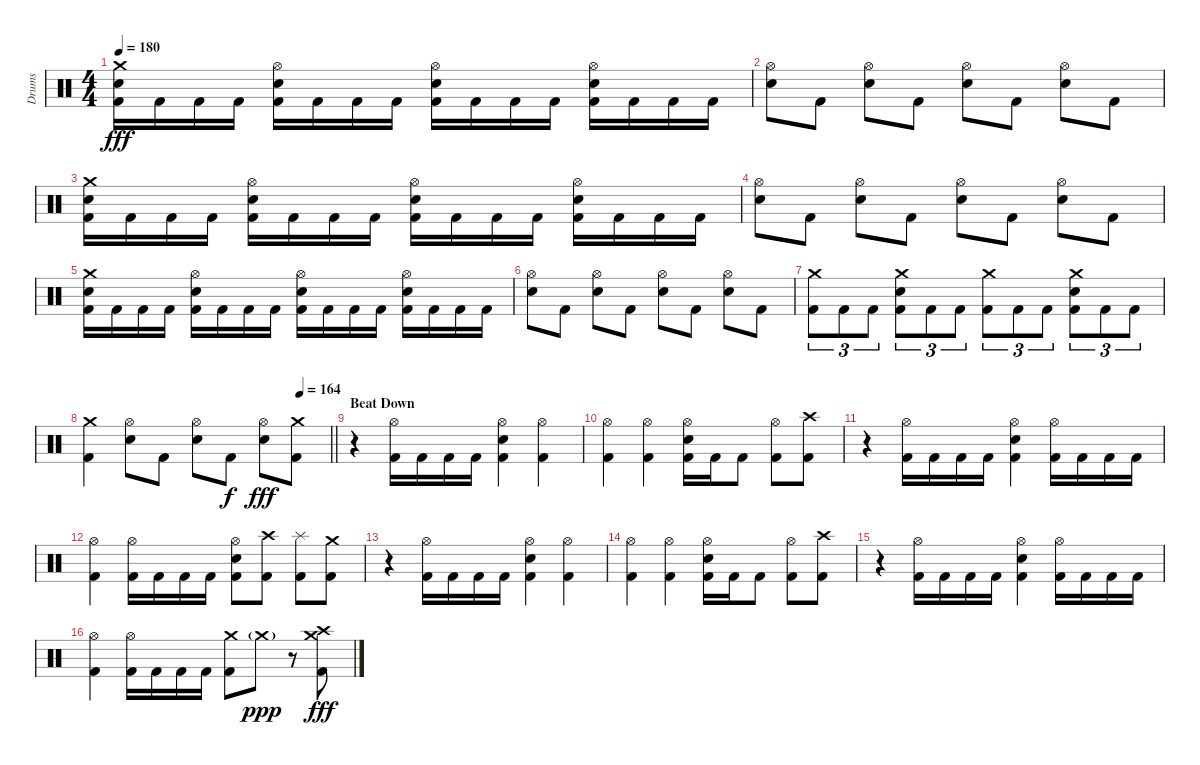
\track ("Drums" "Drums") {instrument percussion}
\staff {score}
\articulation defaults
\ts (4 4)
\tempo 180
\clef neutral
\ks c
("Crash medium (hit)" "Electric Snare (hit)" "Kick (hit) 2").16{dy fff} "Kick (hit) 2".16 "Kick (hit) 2".16 "Kick (hit) 2".16 ("Hi-Hat (open)" "Electric Snare (hit)" "Kick (hit) 2").16 "Kick (hit) 2".16 "Kick (hit) 2".16 "Kick (hit) 2".16 ("Hi-Hat (open)" "Electric Snare (hit)" "Kick (hit) 2").16 "Kick (hit) 2".16 "Kick (hit) 2".16 "Kick (hit) 2".16 ("Hi-Hat (open)" "Electric Snare (hit)" "Kick (hit) 2").16 "Kick (hit) 2".16 "Kick (hit) 2".16 "Kick (hit) 2".16 |
("Hi-Hat (open)" "Electric Snare (hit)").8 "Kick (hit) 2".8 ("Hi-Hat (open)" "Electric Snare (hit)").8 "Kick (hit) 2".8 ("Hi-Hat (open)" "Electric Snare (hit)").8 "Kick (hit) 2".8 ("Hi-Hat (open)" "Electric Snare (hit)").8 "Kick (hit) 2".8 |
("Crash medium (hit)" "Electric Snare (hit)" "Kick (hit) 2").16 "Kick (hit) 2".16 "Kick (hit) 2".16 "Kick (hit) 2".16 ("Hi-Hat (open)" "Electric Snare (hit)" "Kick (hit) 2").16 "Kick (hit) 2".16 "Kick (hit) 2".16 "Kick (hit) 2".16 ("Hi-Hat (open)" "Electric Snare (hit)" "Kick (hit) 2").16 "Kick (hit) 2".16 "Kick (hit) 2".16 "Kick (hit) 2".16 ("Hi-Hat (open)" "Electric Snare (hit)" "Kick (hit) 2").16 "Kick (hit) 2".16 "Kick (hit) 2".16 "Kick (hit) 2".16 |
("Hi-Hat (open)" "Electric Snare (hit)").8 "Kick (hit) 2".8 ("Hi-Hat (open)" "Electric Snare (hit)").8 "Kick (hit) 2".8 ("Hi-Hat (open)" "Electric Snare (hit)").8 "Kick (hit) 2".8 ("Hi-Hat (open)" "Electric Snare (hit)").8 "Kick (hit) 2".8 |
("Crash medium (hit)" "Electric Snare (hit)" "Kick (hit) 2").16 "Kick (hit) 2".16 "Kick (hit) 2".16 "Kick (hit) 2".16 ("Hi-Hat (open)" "Electric Snare (hit)" "Kick (hit) 2").16 "Kick (hit) 2".16 "Kick (hit) 2".16 "Kick (hit) 2".16 ("Hi-Hat (open)" "Electric Snare (hit)" "Kick (hit) 2").16 "Kick (hit) 2".16 "Kick (hit) 2".16 "Kick (hit) 2".16 ("Hi-Hat (open)" "Electric Snare (hit)" "Kick (hit) 2").16 "Kick (hit) 2".16 "Kick (hit) 2".16 "Kick (hit) 2".16 |
("Hi-Hat (open)" "Electric Snare (hit)").8 "Kick (hit) 2".8 ("Hi-Hat (open)" "Electric Snare (hit)").8 "Kick (hit) 2".8 ("Hi-Hat (open)" "Electric Snare (hit)").8 "Kick (hit) 2".8 ("Hi-Hat (open)" "Electric Snare (hit)").8 "Kick (hit) 2".8 |
("Crash medium (hit)" "Kick (hit) 2").8{tu (3 2)} "Kick (hit) 2".8{tu (3 2)} "Kick (hit) 2".8{tu (3 2)} ("Crash medium (hit)" "Electric Snare (hit)" "Kick (hit) 2").8{tu (3 2)} "Kick (hit) 2".8{tu (3 2)} "Kick (hit) 2".8{tu (3 2)} ("Crash medium (hit)" "Kick (hit) 2").8{tu (3 2)} "Kick (hit) 2".8{tu (3 2)} "Kick (hit) 2".8{tu (3 2)} ("Crash medium (hit)" "Electric Snare (hit)" "Kick (hit) 2").8{tu (3 2)} "Kick (hit) 2".8{tu (3 2)} "Kick (hit) 2".8{tu (3 2)} |
\tempo (164 0.875)
\barLineRight lightlight
("Crash medium (hit)" "Kick (hit) 2").4 ("Hi-Hat (open)" "Electric Snare (hit)").8 "Kick (hit) 2".8 ("Hi-Hat (open)" "Electric Snare (hit)").8 "Kick (hit) 2".8{dy f} ("Hi-Hat (open)" "Electric Snare (hit)").8{dy fff} ("Crash medium (hit)" "Kick (hit) 2").8 |
\section ("" "Beat Down")
r.4 ("Hi-Hat (open)" "Kick (hit) 2").16 "Kick (hit) 2".16 "Kick (hit) 2".16 "Kick (hit) 2".16 ("Hi-Hat (open)" "Electric Snare (hit)" "Kick (hit) 2").4 ("Hi-Hat (open)" "Kick (hit) 2").4 |
("Hi-Hat (open)" "Kick (hit) 2").4 ("Hi-Hat (open)" "Kick (hit) 2").4 ("Hi-Hat (open)" "Electric Snare (hit)" "Kick (hit) 2").16 "Kick (hit) 2".16 "Kick (hit) 2".8 ("Hi-Hat (open)" "Kick (hit) 2").8 ("Crash high (hit)" "Kick (hit) 2").8 |
r.4 ("Hi-Hat (open)" "Kick (hit) 2").16 "Kick (hit) 2".16 "Kick (hit) 2".16 "Kick (hit) 2".16 ("Hi-Hat (open)" "Electric Snare (hit)" "Kick (hit) 2").4 ("Hi-Hat (open)" "Kick (hit) 2").16 "Kick (hit) 2".16 "Kick (hit) 2".16 "Kick (hit) 2".16 |
("Hi-Hat (open)" "Kick (hit) 2").4 ("Hi-Hat (open)" "Kick (hit) 2").16 "Kick (hit) 2".16 "Kick (hit) 2".16 "Kick (hit) 2".16 ("Hi-Hat (open)" "Electric Snare (hit)" "Kick (hit) 2").8 ("Crash high (hit)" "Kick (hit) 2").8 ("Splash (hit)" "Kick (hit) 2").8 ("Crash medium (hit)" "Kick (hit) 2").8 |
r.4 ("Hi-Hat (open)" "Kick (hit) 2").16 "Kick (hit) 2".16 "Kick (hit) 2".16 "Kick (hit) 2".16 ("Hi-Hat (open)" "Electric Snare (hit)" "Kick (hit) 2").4 ("Hi-Hat (open)" "Kick (hit) 2").4 |
("Hi-Hat (open)" "Kick (hit) 2").4 ("Hi-Hat (open)" "Kick (hit) 2").4 ("Hi-Hat (open)" "Electric Snare (hit)" "Kick (hit) 2").16 "Kick (hit) 2".16 "Kick (hit) 2".8 ("Hi-Hat (open)" "Kick (hit) 2").8 ("Crash high (hit)" "Kick (hit) 2").8 |
r.4 ("Hi-Hat (open)" "Kick (hit) 2").16 "Kick (hit) 2".16 "Kick (hit) 2".16 "Kick (hit) 2".16 ("Hi-Hat (open)" "Electric Snare (hit)" "Kick (hit) 2").4 ("Hi-Hat (open)" "Kick (hit) 2").16 "Kick (hit) 2".16 "Kick (hit) 2".16 "Kick (hit) 2".16 |
("Hi-Hat (open)" "Kick (hit) 2").4 ("Hi-Hat (open)" "Kick (hit) 2").16 "Kick (hit) 2".16 "Kick (hit) 2".16 "Kick (hit) 2".16 ("Crash medium (hit)" "Kick (hit) 2").8 "Crash medium (hit)"{g}.8{dy ppp} r.8 ("Crash high (hit)" "Crash medium (hit)" "Kick (hit) 2").8{dy fff}
